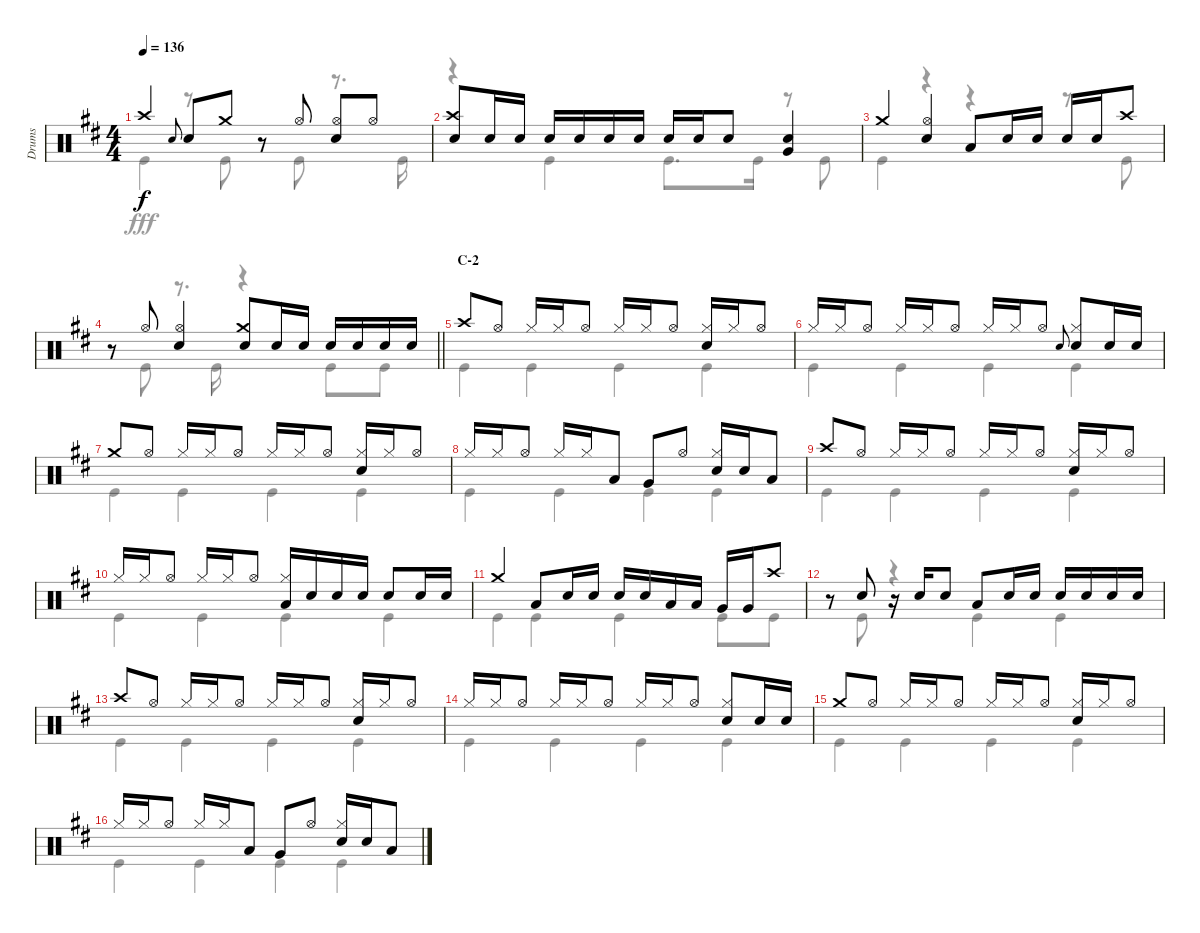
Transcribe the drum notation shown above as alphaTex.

\track ("Drums" "Drums") {instrument percussion}
\staff {score}
\articulation defaults
\voice
\ts (4 4)
\tempo 136
\clef neutral
\ks d "Crash high (hit)".4{dy f} "Snare (hit) 2".8{gr onbeat} "Snare (hit) 2".8 "Crash medium (hit)".8
r.8 "Hi-Hat (open)".8 ("Hi-Hat (open)" "Snare (hit) 2").8 "Hi-Hat (open)".8 |
("Crash high (hit)" "Snare (hit) 2").8 "Snare (hit) 2".16 "Snare (hit) 2".16 "Snare (hit) 2".16 "Snare (hit) 2".16 "Snare (hit) 2".16 "Snare (hit) 2".16 "Snare (hit) 2".16 "Snare (hit) 2".16 "Snare (hit) 2".8 ("Snare (hit) 2" "Very Low Tom (hit)").4 |
"Crash medium (hit)".4 ("Hi-Hat (open)" "Snare (hit) 2").4 "Low Tom (hit)".8 "Snare (hit) 2".16 "Snare (hit) 2".16 "Snare (hit) 2".16 "Snare (hit) 2".16 "Crash high (hit)".8 |
\barLineRight lightlight
r.8 "Hi-Hat (open)".8 ("Hi-Hat (open)" "Snare (hit) 2").4 ("Crash medium (hit)" "Snare (hit) 2").8 "Snare (hit) 2".16 "Snare (hit) 2".16 "Snare (hit) 2".16 "Snare (hit) 2".16 "Snare (hit) 2".16 "Snare (hit) 2".16 |
\section ("" "C-2")
"Crash high (hit)".8 "Hi-Hat (open)".8 "Hi-Hat (closed)".16 "Hi-Hat (closed)".16 "Hi-Hat (open)".8 "Hi-Hat (closed)".16 "Hi-Hat (closed)".16 "Hi-Hat (open)".8 ("Hi-Hat (closed)" "Snare (hit) 2").16 "Hi-Hat (closed)".16 "Hi-Hat (open)".8 |
"Hi-Hat (closed)".16 "Hi-Hat (closed)".16 "Hi-Hat (open)".8 "Hi-Hat (closed)".16 "Hi-Hat (closed)".16 "Hi-Hat (open)".8 "Hi-Hat (closed)".16 "Hi-Hat (closed)".16 "Hi-Hat (open)".8 "Snare (hit) 2".8{gr onbeat} ("Hi-Hat (closed)" "Snare (hit) 2").8 "Snare (hit) 2".16 "Snare (hit) 2".16 |
"Crash medium (hit)".8 "Hi-Hat (open)".8 "Hi-Hat (closed)".16 "Hi-Hat (closed)".16 "Hi-Hat (open)".8 "Hi-Hat (closed)".16 "Hi-Hat (closed)".16 "Hi-Hat (open)".8 ("Hi-Hat (closed)" "Snare (hit) 2").16 "Hi-Hat (closed)".16 "Hi-Hat (open)".8 |
"Hi-Hat (closed)".16 "Hi-Hat (closed)".16 "Hi-Hat (open)".8 "Hi-Hat (closed)".16 "Hi-Hat (closed)".16 "Low Tom (hit)".8 "Very Low Tom (hit)".8 "Hi-Hat (open)".8 ("Hi-Hat (closed)" "Snare (hit) 2").16 "Snare (hit) 2".16 "Low Tom (hit)".8 |
"Crash high (hit)".8 "Hi-Hat (open)".8 "Hi-Hat (closed)".16 "Hi-Hat (closed)".16 "Hi-Hat (open)".8 "Hi-Hat (closed)".16 "Hi-Hat (closed)".16 "Hi-Hat (open)".8 ("Hi-Hat (closed)" "Snare (hit) 2").16 "Hi-Hat (closed)".16 "Hi-Hat (open)".8 |
"Hi-Hat (closed)".16 "Hi-Hat (closed)".16 "Hi-Hat (open)".8 "Hi-Hat (closed)".16 "Hi-Hat (closed)".16 "Hi-Hat (open)".8 ("Hi-Hat (closed)" "Low Tom (hit)").16 "Snare (hit) 2".16 "Snare (hit) 2".16 "Snare (hit) 2".16 "Snare (hit) 2".8 "Snare (hit) 2".16 "Snare (hit) 2".16 |
"Crash medium (hit)".4 "Low Tom (hit)".8 "Snare (hit) 2".16 "Snare (hit) 2".16 "Snare (hit) 2".16 "Snare (hit) 2".16 "Low Tom (hit)".16 "Low Tom (hit)".16 "Very Low Tom (hit)".16 "Very Low Tom (hit)".16 "Crash high (hit)".8 |
r.8 "Snare (hit) 2".8 r.16 "Snare (hit) 2".16 "Snare (hit) 2".8 "Low Tom (hit)".8 "Snare (hit) 2".16 "Snare (hit) 2".16 "Snare (hit) 2".16 "Snare (hit) 2".16 "Snare (hit) 2".16 "Snare (hit) 2".16 |
"Crash high (hit)".8 "Hi-Hat (open)".8 "Hi-Hat (closed)".16 "Hi-Hat (closed)".16 "Hi-Hat (open)".8 "Hi-Hat (closed)".16 "Hi-Hat (closed)".16 "Hi-Hat (open)".8 ("Hi-Hat (closed)" "Snare (hit) 2").16 "Hi-Hat (closed)".16 "Hi-Hat (open)".8 |
"Hi-Hat (closed)".16 "Hi-Hat (closed)".16 "Hi-Hat (open)".8 "Hi-Hat (closed)".16 "Hi-Hat (closed)".16 "Hi-Hat (open)".8 "Hi-Hat (closed)".16 "Hi-Hat (closed)".16 "Hi-Hat (open)".8 ("Hi-Hat (closed)" "Snare (hit) 2").8 "Snare (hit) 2".16 "Snare (hit) 2".16 |
"Crash medium (hit)".8 "Hi-Hat (open)".8 "Hi-Hat (closed)".16 "Hi-Hat (closed)".16 "Hi-Hat (open)".8 "Hi-Hat (closed)".16 "Hi-Hat (closed)".16 "Hi-Hat (open)".8 ("Hi-Hat (closed)" "Snare (hit) 2").16 "Hi-Hat (closed)".16 "Hi-Hat (open)".8 |
"Hi-Hat (closed)".16 "Hi-Hat (closed)".16 "Hi-Hat (open)".8 "Hi-Hat (closed)".16 "Hi-Hat (closed)".16 "Low Tom (hit)".8 "Very Low Tom (hit)".8 "Hi-Hat (open)".8 ("Hi-Hat (closed)" "Snare (hit) 2").16 "Snare (hit) 2".16 "Low Tom (hit)".8
\voice
\clef neutral
\ottava regular
\simile none
\ks d "Kick (hit)".4{dy fff}
r.8 "Kick (hit)".8 r.8 "Kick (hit)".8 r.8{d} "Kick (hit)".16 |
r.4 "Kick (hit)".4 "Kick (hit)".8{d} "Kick (hit)".16 r.8 "Kick (hit)".8 |
"Kick (hit)".4 r.4 r.4 r.8 "Kick (hit)".8 |
\barLineRight lightlight
r.8 "Kick (hit)".8 r.8{d} "Kick (hit)".16 r.4 "Kick (hit)".8 "Kick (hit)".8 |
"Kick (hit)".4 "Kick (hit)".4 "Kick (hit)".4 "Kick (hit)".4 |
"Kick (hit)".4 "Kick (hit)".4 "Kick (hit)".4 "Kick (hit)".4 |
"Kick (hit)".4 "Kick (hit)".4 "Kick (hit)".4 "Kick (hit)".4 |
"Kick (hit)".4 "Kick (hit)".4 "Kick (hit)".4 "Kick (hit)".4 |
"Kick (hit)".4 "Kick (hit)".4 "Kick (hit)".4 "Kick (hit)".4 |
"Kick (hit)".4 "Kick (hit)".4 "Kick (hit)".4 "Kick (hit)".4 |
"Kick (hit)".4 "Kick (hit)".4 "Kick (hit)".4 "Kick (hit)".8 "Kick (hit)".8 |
r.8 "Kick (hit)".8 r.4 "Kick (hit)".4 "Kick (hit)".4 |
"Kick (hit)".4 "Kick (hit)".4 "Kick (hit)".4 "Kick (hit)".4 |
"Kick (hit)".4 "Kick (hit)".4 "Kick (hit)".4 "Kick (hit)".4 |
"Kick (hit)".4 "Kick (hit)".4 "Kick (hit)".4 "Kick (hit)".4 |
"Kick (hit)".4 "Kick (hit)".4 "Kick (hit)".4 "Kick (hit)".4
